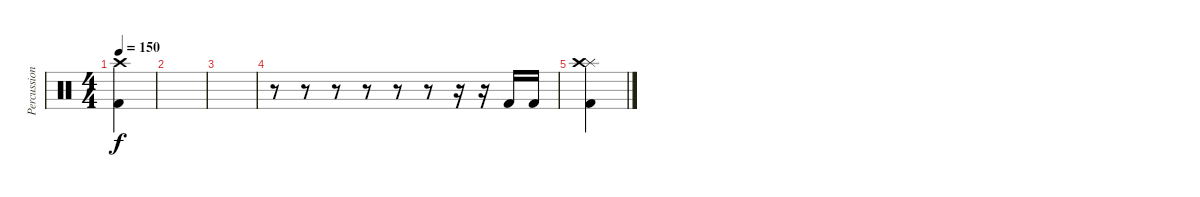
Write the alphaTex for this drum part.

\track ("Percussion" "Percussion") {instrument percussion}
\staff {score}
\articulation defaults
\ts (4 4)
\tempo 150
\clef neutral
\ks c
("Crash high (hit)" "Kick (hit) 2").4{dy f} |
|
|
r.8 r.8 r.8 r.8 r.8 r.8 r.16 r.16 "Kick (hit) 2".16 "Kick (hit) 2".16 |
("Splash (hit)" "Crash high (hit)" "Kick (hit) 2").4
